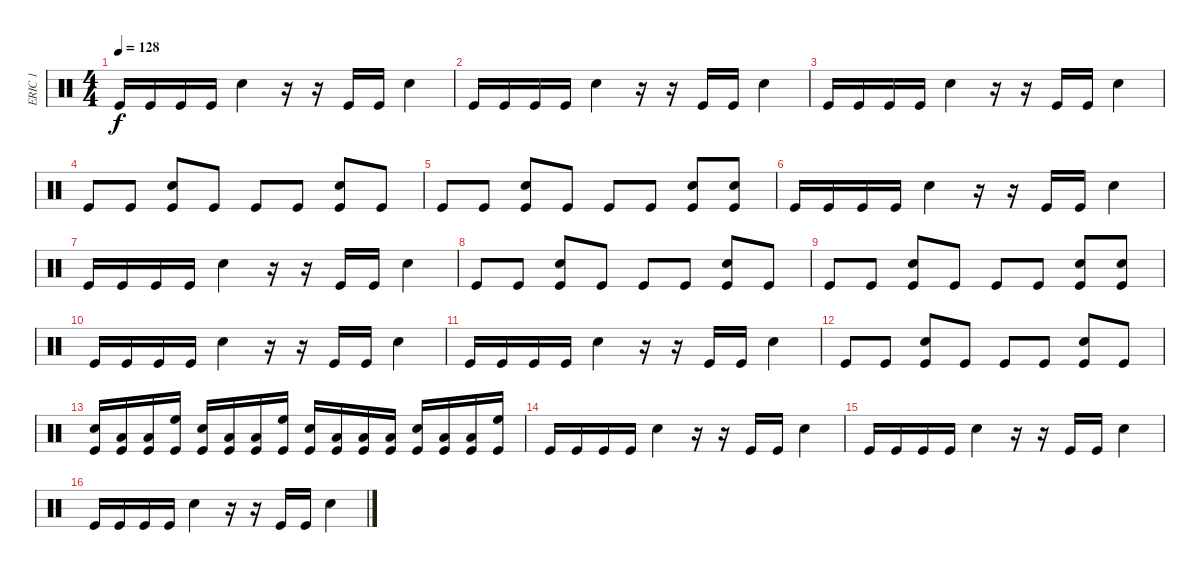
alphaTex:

\track ("ERIC 1" "ERIC 1") {instrument percussion}
\staff {score}
\articulation defaults
\ts (4 4)
\tempo 128
\clef neutral
\ks c "Kick (hit)".16{dy f} "Kick (hit)".16 "Kick (hit)".16 "Kick (hit)".16 "Electric Snare (hit)".4
r.16 r.16 "Kick (hit)".16 "Kick (hit)".16 "Electric Snare (hit)".4 |
"Kick (hit)".16 "Kick (hit)".16 "Kick (hit)".16 "Kick (hit)".16 "Electric Snare (hit)".4 r.16 r.16 "Kick (hit)".16 "Kick (hit)".16 "Electric Snare (hit)".4 |
"Kick (hit)".16 "Kick (hit)".16 "Kick (hit)".16 "Kick (hit)".16 "Electric Snare (hit)".4 r.16 r.16 "Kick (hit)".16 "Kick (hit)".16 "Electric Snare (hit)".4 |
"Kick (hit)".8 "Kick (hit)".8 ("Electric Snare (hit)" "Kick (hit)").8 "Kick (hit)".8 "Kick (hit)".8 "Kick (hit)".8 ("Electric Snare (hit)" "Kick (hit)").8 "Kick (hit)".8 |
"Kick (hit)".8 "Kick (hit)".8 ("Electric Snare (hit)" "Kick (hit)").8 "Kick (hit)".8 "Kick (hit)".8 "Kick (hit)".8 ("Electric Snare (hit)" "Kick (hit)").8 ("Electric Snare (hit)" "Kick (hit)").8 |
"Kick (hit)".16 "Kick (hit)".16 "Kick (hit)".16 "Kick (hit)".16 "Electric Snare (hit)".4 r.16 r.16 "Kick (hit)".16 "Kick (hit)".16 "Electric Snare (hit)".4 |
"Kick (hit)".16 "Kick (hit)".16 "Kick (hit)".16 "Kick (hit)".16 "Electric Snare (hit)".4 r.16 r.16 "Kick (hit)".16 "Kick (hit)".16 "Electric Snare (hit)".4 |
"Kick (hit)".8 "Kick (hit)".8 ("Electric Snare (hit)" "Kick (hit)").8 "Kick (hit)".8 "Kick (hit)".8 "Kick (hit)".8 ("Electric Snare (hit)" "Kick (hit)").8 "Kick (hit)".8 |
"Kick (hit)".8 "Kick (hit)".8 ("Electric Snare (hit)" "Kick (hit)").8 "Kick (hit)".8 "Kick (hit)".8 "Kick (hit)".8 ("Electric Snare (hit)" "Kick (hit)").8 ("Electric Snare (hit)" "Kick (hit)").8 |
"Kick (hit)".16 "Kick (hit)".16 "Kick (hit)".16 "Kick (hit)".16 "Electric Snare (hit)".4 r.16 r.16 "Kick (hit)".16 "Kick (hit)".16 "Electric Snare (hit)".4 |
"Kick (hit)".16 "Kick (hit)".16 "Kick (hit)".16 "Kick (hit)".16 "Electric Snare (hit)".4 r.16 r.16 "Kick (hit)".16 "Kick (hit)".16 "Electric Snare (hit)".4 |
"Kick (hit)".8 "Kick (hit)".8 ("Electric Snare (hit)" "Kick (hit)").8 "Kick (hit)".8 "Kick (hit)".8 "Kick (hit)".8 ("Electric Snare (hit)" "Kick (hit)").8 "Kick (hit)".8 |
("Electric Snare (hit)" "Kick (hit)").16 ("Low Floor Tom (hit)" "Kick (hit)").16 ("Low Tom (hit)" "Kick (hit)").16 ("High Floor Tom (hit)" "Kick (hit)").16 ("Electric Snare (hit)" "Kick (hit)").16 ("Low Floor Tom (hit)" "Kick (hit)").16 ("Low Tom (hit)" "Kick (hit)").16 ("High Floor Tom (hit)" "Kick (hit)").16 ("Electric Snare (hit)" "Kick (hit)").16 ("Low Floor Tom (hit)" "Kick (hit)").16 ("Low Tom (hit)" "Kick (hit)").16 ("Low Floor Tom (hit)" "Kick (hit)").16 ("Electric Snare (hit)" "Kick (hit)").16 ("Low Floor Tom (hit)" "Kick (hit)").16 ("Low Tom (hit)" "Kick (hit)").16 ("High Floor Tom (hit)" "Kick (hit)").16 |
"Kick (hit)".16 "Kick (hit)".16 "Kick (hit)".16 "Kick (hit)".16 "Electric Snare (hit)".4 r.16 r.16 "Kick (hit)".16 "Kick (hit)".16 "Electric Snare (hit)".4 |
"Kick (hit)".16 "Kick (hit)".16 "Kick (hit)".16 "Kick (hit)".16 "Electric Snare (hit)".4 r.16 r.16 "Kick (hit)".16 "Kick (hit)".16 "Electric Snare (hit)".4 |
"Kick (hit)".16 "Kick (hit)".16 "Kick (hit)".16 "Kick (hit)".16 "Electric Snare (hit)".4 r.16 r.16 "Kick (hit)".16 "Kick (hit)".16 "Electric Snare (hit)".4
